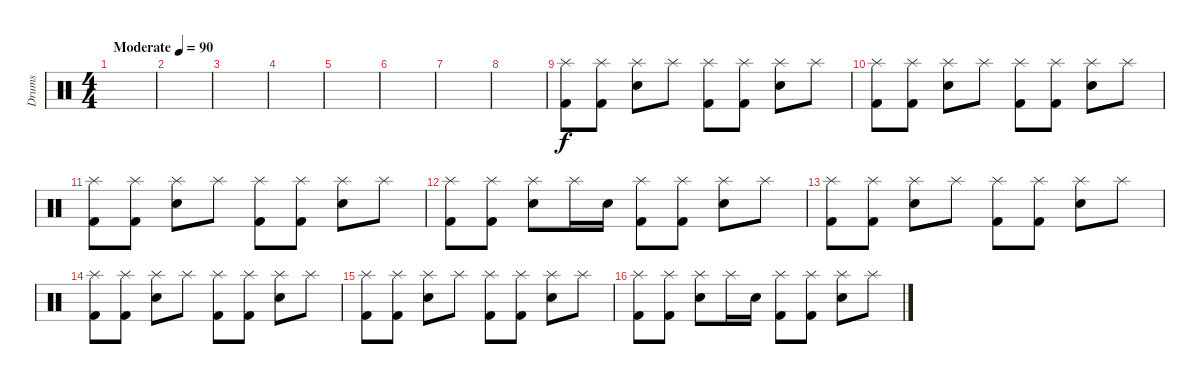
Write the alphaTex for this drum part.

\track ("Drums" "Drums") {instrument percussion}
\staff {score}
\articulation defaults
\ts (4 4)
\tempo (90 "Moderate")
\clef neutral
\ks c
|
|
|
|
|
|
|
|
("Splash (hit)" "Kick (hit) 2").8 ("Splash (hit)" "Kick (hit) 2").8 ("Splash (hit)" "Snare (hit) 2").8 "Splash (hit)".8 ("Splash (hit)" "Kick (hit) 2").8 ("Splash (hit)" "Kick (hit) 2").8 ("Splash (hit)" "Snare (hit) 2").8 "Splash (hit)".8 |
("Splash (hit)" "Kick (hit) 2").8 ("Splash (hit)" "Kick (hit) 2").8 ("Splash (hit)" "Snare (hit) 2").8 "Splash (hit)".8 ("Splash (hit)" "Kick (hit) 2").8 ("Splash (hit)" "Kick (hit) 2").8 ("Splash (hit)" "Snare (hit) 2").8 "Splash (hit)".8 |
("Splash (hit)" "Kick (hit) 2").8 ("Splash (hit)" "Kick (hit) 2").8 ("Splash (hit)" "Snare (hit) 2").8 "Splash (hit)".8 ("Splash (hit)" "Kick (hit) 2").8 ("Splash (hit)" "Kick (hit) 2").8 ("Splash (hit)" "Snare (hit) 2").8 "Splash (hit)".8 |
("Splash (hit)" "Kick (hit) 2").8 ("Splash (hit)" "Kick (hit) 2").8 ("Splash (hit)" "Snare (hit) 2").8 "Splash (hit)".16 "Snare (hit) 2".16 ("Splash (hit)" "Kick (hit) 2").8 ("Splash (hit)" "Kick (hit) 2").8 ("Splash (hit)" "Snare (hit) 2").8 "Splash (hit)".8 |
("Splash (hit)" "Kick (hit) 2").8 ("Splash (hit)" "Kick (hit) 2").8 ("Splash (hit)" "Snare (hit) 2").8 "Splash (hit)".8 ("Splash (hit)" "Kick (hit) 2").8 ("Splash (hit)" "Kick (hit) 2").8 ("Splash (hit)" "Snare (hit) 2").8 "Splash (hit)".8 |
("Splash (hit)" "Kick (hit) 2").8 ("Splash (hit)" "Kick (hit) 2").8 ("Splash (hit)" "Snare (hit) 2").8 "Splash (hit)".8 ("Splash (hit)" "Kick (hit) 2").8 ("Splash (hit)" "Kick (hit) 2").8 ("Splash (hit)" "Snare (hit) 2").8 "Splash (hit)".8 |
("Splash (hit)" "Kick (hit) 2").8 ("Splash (hit)" "Kick (hit) 2").8 ("Splash (hit)" "Snare (hit) 2").8 "Splash (hit)".8 ("Splash (hit)" "Kick (hit) 2").8 ("Splash (hit)" "Kick (hit) 2").8 ("Splash (hit)" "Snare (hit) 2").8 "Splash (hit)".8 |
("Splash (hit)" "Kick (hit) 2").8 ("Splash (hit)" "Kick (hit) 2").8 ("Splash (hit)" "Snare (hit) 2").8 "Splash (hit)".16 "Snare (hit) 2".16 ("Splash (hit)" "Kick (hit) 2").8 ("Splash (hit)" "Kick (hit) 2").8 ("Splash (hit)" "Snare (hit) 2").8 "Splash (hit)".8
